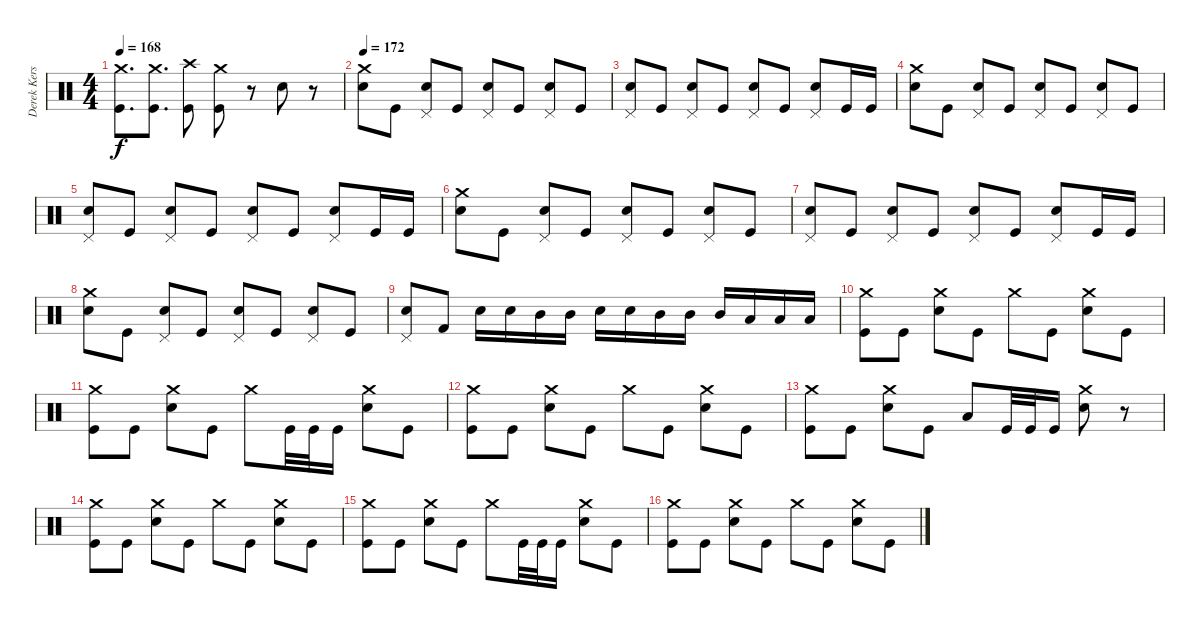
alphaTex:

\track ("Derek Kerswill" "Derek Kers") {instrument percussion}
\staff {score}
\articulation defaults
\ts (4 4)
\tempo 168
\clef neutral
\ks c
("Crash medium (hit)" "Kick (hit)").8{d dy f} ("Crash medium (hit)" "Kick (hit)").8{d} ("Crash high (hit)" "Kick (hit)").8 ("Crash medium (hit)" "Kick (hit)").8 r.8 "Electric Snare (hit)".8 r.8 |
\tempo 172
("Crash medium (hit)" "Electric Snare (hit)").8 "Kick (hit)".8 ("Pedal Hi-Hat (hit)" "Electric Snare (hit)").8 "Kick (hit)".8 ("Pedal Hi-Hat (hit)" "Electric Snare (hit)").8 "Kick (hit)".8 ("Pedal Hi-Hat (hit)" "Electric Snare (hit)").8 "Kick (hit)".8 |
("Pedal Hi-Hat (hit)" "Electric Snare (hit)").8 "Kick (hit)".8 ("Pedal Hi-Hat (hit)" "Electric Snare (hit)").8 "Kick (hit)".8 ("Pedal Hi-Hat (hit)" "Electric Snare (hit)").8 "Kick (hit)".8 ("Pedal Hi-Hat (hit)" "Electric Snare (hit)").8 "Kick (hit)".16 "Kick (hit)".16 |
("Crash medium (hit)" "Electric Snare (hit)").8 "Kick (hit)".8 ("Pedal Hi-Hat (hit)" "Electric Snare (hit)").8 "Kick (hit)".8 ("Pedal Hi-Hat (hit)" "Electric Snare (hit)").8 "Kick (hit)".8 ("Pedal Hi-Hat (hit)" "Electric Snare (hit)").8 "Kick (hit)".8 |
("Pedal Hi-Hat (hit)" "Electric Snare (hit)").8 "Kick (hit)".8 ("Pedal Hi-Hat (hit)" "Electric Snare (hit)").8 "Kick (hit)".8 ("Pedal Hi-Hat (hit)" "Electric Snare (hit)").8 "Kick (hit)".8 ("Pedal Hi-Hat (hit)" "Electric Snare (hit)").8 "Kick (hit)".16 "Kick (hit)".16 |
("Crash medium (hit)" "Electric Snare (hit)").8 "Kick (hit)".8 ("Pedal Hi-Hat (hit)" "Electric Snare (hit)").8 "Kick (hit)".8 ("Pedal Hi-Hat (hit)" "Electric Snare (hit)").8 "Kick (hit)".8 ("Pedal Hi-Hat (hit)" "Electric Snare (hit)").8 "Kick (hit)".8 |
("Pedal Hi-Hat (hit)" "Electric Snare (hit)").8 "Kick (hit)".8 ("Pedal Hi-Hat (hit)" "Electric Snare (hit)").8 "Kick (hit)".8 ("Pedal Hi-Hat (hit)" "Electric Snare (hit)").8 "Kick (hit)".8 ("Pedal Hi-Hat (hit)" "Electric Snare (hit)").8 "Kick (hit)".16 "Kick (hit)".16 |
("Crash medium (hit)" "Electric Snare (hit)").8 "Kick (hit)".8 ("Pedal Hi-Hat (hit)" "Electric Snare (hit)").8 "Kick (hit)".8 ("Pedal Hi-Hat (hit)" "Electric Snare (hit)").8 "Kick (hit)".8 ("Pedal Hi-Hat (hit)" "Electric Snare (hit)").8 "Kick (hit)".8 |
("Pedal Hi-Hat (hit)" "Electric Snare (hit)").8 "Kick (hit) 2".8 "Electric Snare (hit)".16 "Electric Snare (hit)".16 "Mid Tom (hit)".16 "Mid Tom (hit)".16 "Electric Snare (hit)".16 "Electric Snare (hit)".16 "Mid Tom (hit)".16 "Mid Tom (hit)".16 "Mid Tom (hit)".16 "Low Tom (hit)".16 "Low Tom (hit)".16 "Low Tom (hit)".16 |
("Crash medium (hit)" "Kick (hit)").8 "Kick (hit)".8 ("Crash medium (hit)" "Electric Snare (hit)").8 "Kick (hit)".8 "Crash medium (hit)".8 "Kick (hit)".8 ("Crash medium (hit)" "Electric Snare (hit)").8 "Kick (hit)".8 |
("Crash medium (hit)" "Kick (hit)").8 "Kick (hit)".8 ("Crash medium (hit)" "Electric Snare (hit)").8 "Kick (hit)".8 "Crash medium (hit)".8 "Kick (hit)".32 "Kick (hit)".32 "Kick (hit)".16 ("Crash medium (hit)" "Electric Snare (hit)").8 "Kick (hit)".8 |
("Crash medium (hit)" "Kick (hit)").8 "Kick (hit)".8 ("Crash medium (hit)" "Electric Snare (hit)").8 "Kick (hit)".8 "Crash medium (hit)".8 "Kick (hit)".8 ("Crash medium (hit)" "Electric Snare (hit)").8 "Kick (hit)".8 |
("Crash medium (hit)" "Kick (hit)").8 "Kick (hit)".8 ("Crash medium (hit)" "Electric Snare (hit)").8 "Kick (hit)".8 "Low Tom (hit)".8 "Kick (hit)".32 "Kick (hit)".32 "Kick (hit)".16 ("Crash medium (hit)" "Electric Snare (hit)").8 r.8 |
("Crash medium (hit)" "Kick (hit)").8 "Kick (hit)".8 ("Crash medium (hit)" "Electric Snare (hit)").8 "Kick (hit)".8 "Crash medium (hit)".8 "Kick (hit)".8 ("Crash medium (hit)" "Electric Snare (hit)").8 "Kick (hit)".8 |
("Crash medium (hit)" "Kick (hit)").8 "Kick (hit)".8 ("Crash medium (hit)" "Electric Snare (hit)").8 "Kick (hit)".8 "Crash medium (hit)".8 "Kick (hit)".32 "Kick (hit)".32 "Kick (hit)".16 ("Crash medium (hit)" "Electric Snare (hit)").8 "Kick (hit)".8 |
("Crash medium (hit)" "Kick (hit)").8 "Kick (hit)".8 ("Crash medium (hit)" "Electric Snare (hit)").8 "Kick (hit)".8 "Crash medium (hit)".8 "Kick (hit)".8 ("Crash medium (hit)" "Electric Snare (hit)").8 "Kick (hit)".8
